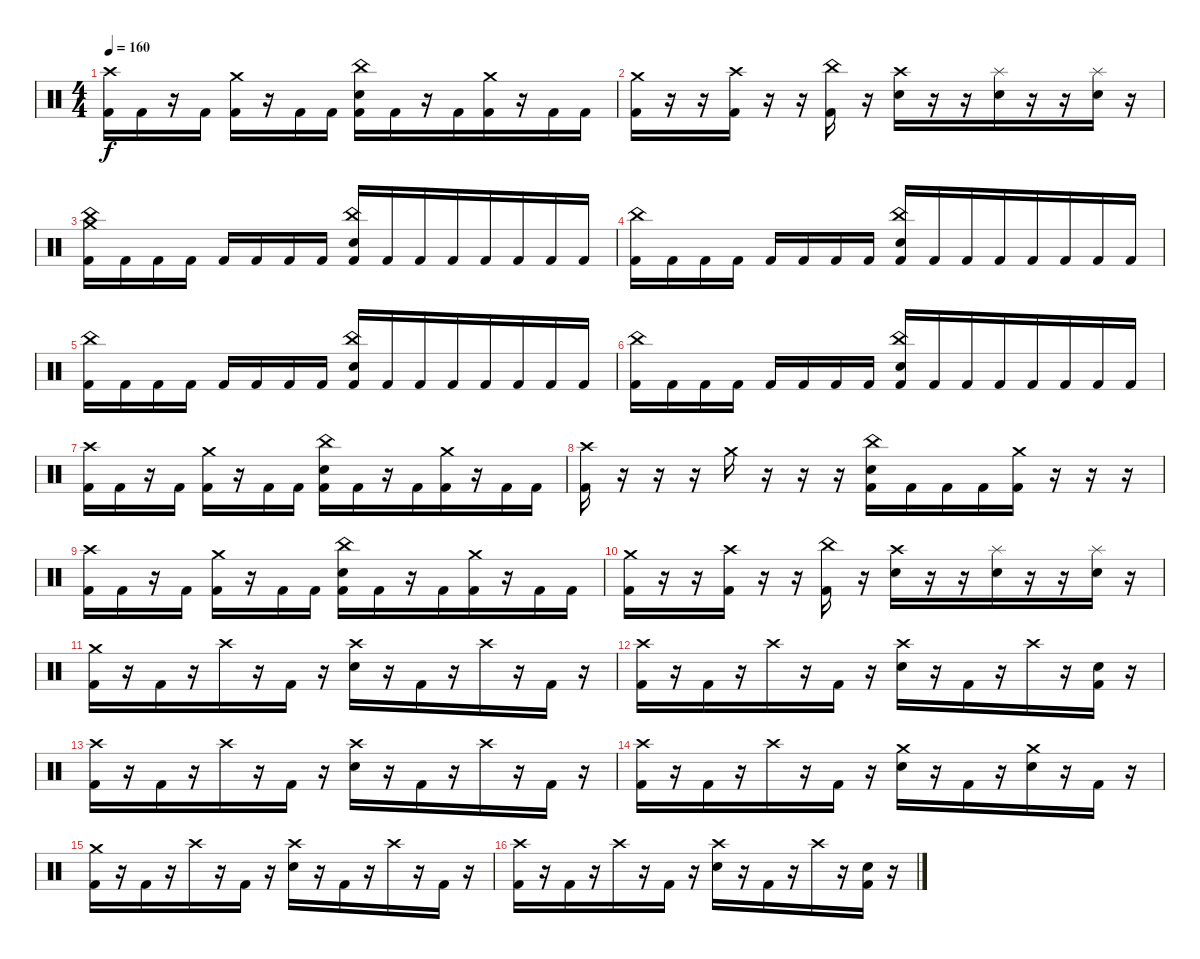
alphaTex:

\track "" {instrument percussion}
\staff {score}
\articulation defaults
\ts (4 4)
\tempo 160
\clef neutral
\ks c
("Crash high (hit)" "Kick (hit) 2").16{dy f} "Kick (hit) 2".16 r.16 "Kick (hit) 2".16 ("Crash medium (hit)" "Kick (hit) 2").16 r.16{beam merge} "Kick (hit) 2".16 "Kick (hit) 2".16 ("China (hit)" "Electric Snare (hit)" "Kick (hit) 2").16 "Kick (hit) 2".16{beam merge} r.16 "Kick (hit) 2".16{beam merge} ("Crash medium (hit)" "Kick (hit) 2").16 r.16 "Kick (hit) 2".16 "Kick (hit) 2".16 |
("Crash medium (hit)" "Kick (hit) 2").16 r.16 r.16 ("Crash high (hit)" "Kick (hit) 2").16 r.16 r.16{beam merge} ("China (hit)" "Kick (hit) 2").16 r.16 ("Crash high (hit)" "Electric Snare (hit)").16 r.16{beam merge} r.16 ("Splash (hit)" "Electric Snare (hit)").16{beam merge} r.16 r.16 ("Splash (hit)" "Electric Snare (hit)").16 r.16 |
("Crash medium (hit)" "China (hit)" "Kick (hit) 2").16 "Kick (hit) 2".16 "Kick (hit) 2".16{beam merge} "Kick (hit) 2".16 "Kick (hit) 2".16 "Kick (hit) 2".16 "Kick (hit) 2".16 "Kick (hit) 2".16 ("China (hit)" "Electric Snare (hit)" "Kick (hit) 2").16 "Kick (hit) 2".16{beam merge} "Kick (hit) 2".16{beam merge} "Kick (hit) 2".16{beam merge} "Kick (hit) 2".16 "Kick (hit) 2".16{beam merge} "Kick (hit) 2".16{beam merge} "Kick (hit) 2".16 |
("China (hit)" "Kick (hit) 2").16 "Kick (hit) 2".16 "Kick (hit) 2".16{beam merge} "Kick (hit) 2".16 "Kick (hit) 2".16 "Kick (hit) 2".16 "Kick (hit) 2".16 "Kick (hit) 2".16 ("China (hit)" "Electric Snare (hit)" "Kick (hit) 2").16 "Kick (hit) 2".16{beam merge} "Kick (hit) 2".16{beam merge} "Kick (hit) 2".16{beam merge} "Kick (hit) 2".16 "Kick (hit) 2".16{beam merge} "Kick (hit) 2".16{beam merge} "Kick (hit) 2".16 |
("China (hit)" "Kick (hit) 2").16 "Kick (hit) 2".16 "Kick (hit) 2".16{beam merge} "Kick (hit) 2".16 "Kick (hit) 2".16 "Kick (hit) 2".16 "Kick (hit) 2".16 "Kick (hit) 2".16 ("China (hit)" "Electric Snare (hit)" "Kick (hit) 2").16 "Kick (hit) 2".16{beam merge} "Kick (hit) 2".16{beam merge} "Kick (hit) 2".16{beam merge} "Kick (hit) 2".16 "Kick (hit) 2".16{beam merge} "Kick (hit) 2".16{beam merge} "Kick (hit) 2".16 |
("China (hit)" "Kick (hit) 2").16 "Kick (hit) 2".16 "Kick (hit) 2".16{beam merge} "Kick (hit) 2".16 "Kick (hit) 2".16 "Kick (hit) 2".16 "Kick (hit) 2".16 "Kick (hit) 2".16 ("China (hit)" "Electric Snare (hit)" "Kick (hit) 2").16 "Kick (hit) 2".16{beam merge} "Kick (hit) 2".16{beam merge} "Kick (hit) 2".16{beam merge} "Kick (hit) 2".16 "Kick (hit) 2".16{beam merge} "Kick (hit) 2".16{beam merge} "Kick (hit) 2".16 |
("Crash high (hit)" "Kick (hit) 2").16 "Kick (hit) 2".16 r.16 "Kick (hit) 2".16 ("Crash medium (hit)" "Kick (hit) 2").16 r.16{beam merge} "Kick (hit) 2".16 "Kick (hit) 2".16 ("China (hit)" "Electric Snare (hit)" "Kick (hit) 2").16 "Kick (hit) 2".16{beam merge} r.16 "Kick (hit) 2".16{beam merge} ("Crash medium (hit)" "Kick (hit) 2").16 r.16 "Kick (hit) 2".16 "Kick (hit) 2".16 |
("Crash high (hit)" "Kick (hit) 2").16 r.16 r.16 r.16 "Crash medium (hit)".16 r.16{beam merge} r.16 r.16 ("China (hit)" "Electric Snare (hit)" "Kick (hit) 2").16 "Kick (hit) 2".16{beam merge} "Kick (hit) 2".16 "Kick (hit) 2".16{beam merge} ("Crash medium (hit)" "Kick (hit) 2").16 r.16 r.16 r.16 |
("Crash high (hit)" "Kick (hit) 2").16 "Kick (hit) 2".16 r.16 "Kick (hit) 2".16 ("Crash medium (hit)" "Kick (hit) 2").16 r.16{beam merge} "Kick (hit) 2".16 "Kick (hit) 2".16 ("China (hit)" "Electric Snare (hit)" "Kick (hit) 2").16 "Kick (hit) 2".16{beam merge} r.16 "Kick (hit) 2".16{beam merge} ("Crash medium (hit)" "Kick (hit) 2").16 r.16 "Kick (hit) 2".16 "Kick (hit) 2".16 |
("Crash medium (hit)" "Kick (hit) 2").16 r.16 r.16 ("Crash high (hit)" "Kick (hit) 2").16 r.16 r.16{beam merge} ("China (hit)" "Kick (hit) 2").16 r.16 ("Crash high (hit)" "Electric Snare (hit)").16 r.16{beam merge} r.16 ("Splash (hit)" "Electric Snare (hit)").16{beam merge} r.16 r.16 ("Splash (hit)" "Electric Snare (hit)").16 r.16 |
("Crash medium (hit)" "Kick (hit) 2").16 r.16 "Kick (hit) 2".16{beam merge} r.16{beam merge} "Crash high (hit)".16 r.16 "Kick (hit) 2".16 r.16 ("Crash high (hit)" "Electric Snare (hit)").16{beam merge} r.16 "Kick (hit) 2".16{beam merge} r.16{beam merge} "Crash high (hit)".16 r.16{beam merge} "Kick (hit) 2".16 r.16 |
("Crash high (hit)" "Kick (hit) 2").16 r.16 "Kick (hit) 2".16{beam merge} r.16{beam merge} "Crash high (hit)".16 r.16 "Kick (hit) 2".16 r.16 ("Crash high (hit)" "Electric Snare (hit)").16{beam merge} r.16 "Kick (hit) 2".16{beam merge} r.16{beam merge} "Crash high (hit)".16 r.16{beam merge} ("Electric Snare (hit)" "Kick (hit) 2").16 r.16 |
("Crash high (hit)" "Kick (hit) 2").16 r.16 "Kick (hit) 2".16{beam merge} r.16{beam merge} "Crash high (hit)".16 r.16 "Kick (hit) 2".16 r.16 ("Crash high (hit)" "Electric Snare (hit)").16{beam merge} r.16 "Kick (hit) 2".16{beam merge} r.16{beam merge} "Crash high (hit)".16 r.16{beam merge} "Kick (hit) 2".16 r.16 |
("Crash high (hit)" "Kick (hit) 2").16 r.16 "Kick (hit) 2".16{beam merge} r.16{beam merge} "Crash high (hit)".16 r.16 "Kick (hit) 2".16 r.16 ("Crash medium (hit)" "Electric Snare (hit)").16{beam merge} r.16 "Kick (hit) 2".16{beam merge} r.16{beam merge} ("Crash medium (hit)" "Electric Snare (hit)").16 r.16{beam merge} "Kick (hit) 2".16 r.16 |
("Crash medium (hit)" "Kick (hit) 2").16 r.16 "Kick (hit) 2".16{beam merge} r.16{beam merge} "Crash high (hit)".16 r.16 "Kick (hit) 2".16 r.16 ("Crash high (hit)" "Electric Snare (hit)").16{beam merge} r.16 "Kick (hit) 2".16{beam merge} r.16{beam merge} "Crash high (hit)".16 r.16{beam merge} "Kick (hit) 2".16 r.16 |
("Crash high (hit)" "Kick (hit) 2").16 r.16 "Kick (hit) 2".16{beam merge} r.16{beam merge} "Crash high (hit)".16 r.16 "Kick (hit) 2".16 r.16 ("Crash high (hit)" "Electric Snare (hit)").16{beam merge} r.16 "Kick (hit) 2".16{beam merge} r.16{beam merge} "Crash high (hit)".16 r.16{beam merge} ("Electric Snare (hit)" "Kick (hit) 2").16 r.16
